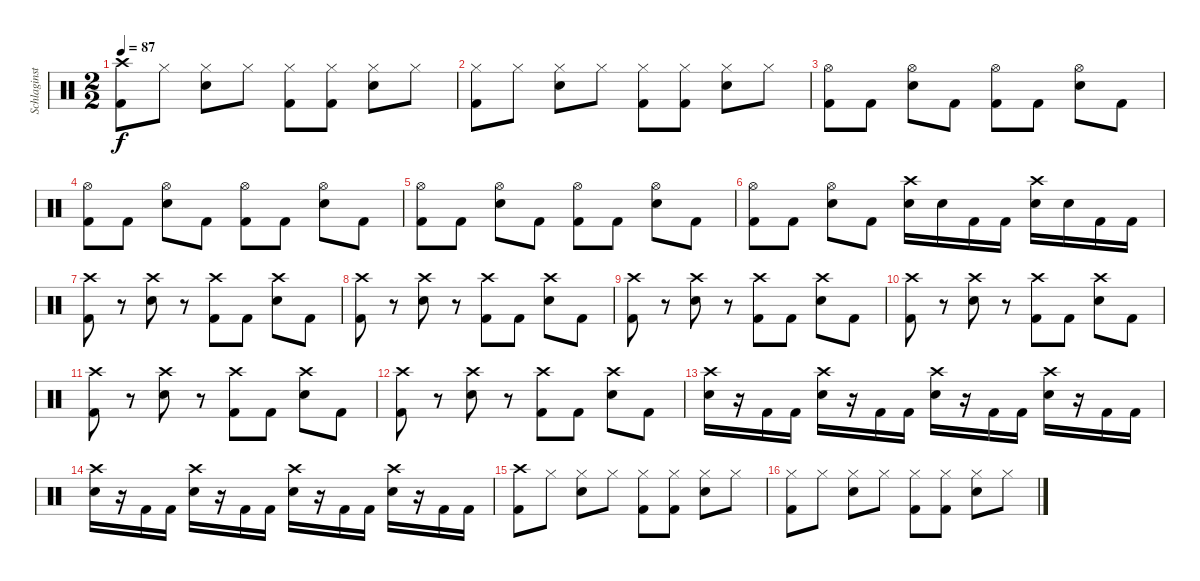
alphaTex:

\track ("Schlaginstrumente - Auswahl" "Schlaginst") {instrument percussion}
\staff {score}
\articulation defaults
\ts (2 2)
\tempo 87
\clef neutral
\ks c
("Crash high (hit)" "Kick (hit) 2").8{dy f} "Hi-Hat (closed)".8 ("Hi-Hat (closed)" "Electric Snare (hit)").8 "Hi-Hat (closed)".8 ("Hi-Hat (closed)" "Kick (hit) 2").8 ("Hi-Hat (closed)" "Kick (hit) 2").8 ("Hi-Hat (closed)" "Electric Snare (hit)").8 "Hi-Hat (closed)".8 |
("Hi-Hat (closed)" "Kick (hit) 2").8 "Hi-Hat (closed)".8 ("Hi-Hat (closed)" "Electric Snare (hit)").8 "Hi-Hat (closed)".8 ("Hi-Hat (closed)" "Kick (hit) 2").8 ("Hi-Hat (closed)" "Kick (hit) 2").8 ("Hi-Hat (closed)" "Electric Snare (hit)").8 "Hi-Hat (closed)".8 |
("Hi-Hat (open)" "Kick (hit) 2").8 "Kick (hit) 2".8 ("Hi-Hat (open)" "Electric Snare (hit)").8 "Kick (hit) 2".8 ("Hi-Hat (open)" "Kick (hit) 2").8 "Kick (hit) 2".8 ("Hi-Hat (open)" "Electric Snare (hit)").8 "Kick (hit) 2".8 |
("Hi-Hat (open)" "Kick (hit) 2").8 "Kick (hit) 2".8 ("Hi-Hat (open)" "Electric Snare (hit)").8 "Kick (hit) 2".8 ("Hi-Hat (open)" "Kick (hit) 2").8 "Kick (hit) 2".8 ("Hi-Hat (open)" "Electric Snare (hit)").8 "Kick (hit) 2".8 |
("Hi-Hat (open)" "Kick (hit) 2").8 "Kick (hit) 2".8 ("Hi-Hat (open)" "Electric Snare (hit)").8 "Kick (hit) 2".8 ("Hi-Hat (open)" "Kick (hit) 2").8 "Kick (hit) 2".8 ("Hi-Hat (open)" "Electric Snare (hit)").8 "Kick (hit) 2".8 |
("Hi-Hat (open)" "Kick (hit) 2").8 "Kick (hit) 2".8 ("Hi-Hat (open)" "Electric Snare (hit)").8 "Kick (hit) 2".8 ("Crash high (hit)" "Electric Snare (hit)").16 "Electric Snare (hit)".16 "Kick (hit) 2".16 "Kick (hit) 2".16 ("Crash high (hit)" "Electric Snare (hit)").16 "Electric Snare (hit)".16 "Kick (hit) 2".16 "Kick (hit) 2".16 |
("Crash high (hit)" "Kick (hit) 2").8 r.8 ("Crash high (hit)" "Electric Snare (hit)").8 r.8 ("Crash high (hit)" "Kick (hit) 2").8 "Kick (hit) 2".8 ("Crash high (hit)" "Electric Snare (hit)").8 "Kick (hit) 2".8 |
("Crash high (hit)" "Kick (hit) 2").8 r.8 ("Crash high (hit)" "Electric Snare (hit)").8 r.8 ("Crash high (hit)" "Kick (hit) 2").8 "Kick (hit) 2".8 ("Crash high (hit)" "Electric Snare (hit)").8 "Kick (hit) 2".8 |
("Crash high (hit)" "Kick (hit) 2").8 r.8 ("Crash high (hit)" "Electric Snare (hit)").8 r.8 ("Crash high (hit)" "Kick (hit) 2").8 "Kick (hit) 2".8 ("Crash high (hit)" "Electric Snare (hit)").8 "Kick (hit) 2".8 |
("Crash high (hit)" "Kick (hit) 2").8 r.8 ("Crash high (hit)" "Electric Snare (hit)").8 r.8 ("Crash high (hit)" "Kick (hit) 2").8 "Kick (hit) 2".8 ("Crash high (hit)" "Electric Snare (hit)").8 "Kick (hit) 2".8 |
("Crash high (hit)" "Kick (hit) 2").8 r.8 ("Crash high (hit)" "Electric Snare (hit)").8 r.8 ("Crash high (hit)" "Kick (hit) 2").8 "Kick (hit) 2".8 ("Crash high (hit)" "Electric Snare (hit)").8 "Kick (hit) 2".8 |
("Crash high (hit)" "Kick (hit) 2").8 r.8 ("Crash high (hit)" "Electric Snare (hit)").8 r.8 ("Crash high (hit)" "Kick (hit) 2").8 "Kick (hit) 2".8 ("Crash high (hit)" "Electric Snare (hit)").8 "Kick (hit) 2".8 |
("Crash high (hit)" "Electric Snare (hit)").16 r.16 "Kick (hit) 2".16 "Kick (hit) 2".16 ("Crash high (hit)" "Electric Snare (hit)").16 r.16 "Kick (hit) 2".16 "Kick (hit) 2".16 ("Crash high (hit)" "Electric Snare (hit)").16 r.16 "Kick (hit) 2".16 "Kick (hit) 2".16 ("Crash high (hit)" "Electric Snare (hit)").16 r.16 "Kick (hit) 2".16 "Kick (hit) 2".16 |
("Crash high (hit)" "Electric Snare (hit)").16 r.16 "Kick (hit) 2".16 "Kick (hit) 2".16 ("Crash high (hit)" "Electric Snare (hit)").16 r.16 "Kick (hit) 2".16 "Kick (hit) 2".16 ("Crash high (hit)" "Electric Snare (hit)").16 r.16 "Kick (hit) 2".16 "Kick (hit) 2".16 ("Crash high (hit)" "Electric Snare (hit)").16 r.16 "Kick (hit) 2".16 "Kick (hit) 2".16 |
("Crash high (hit)" "Kick (hit) 2").8 "Hi-Hat (closed)".8 ("Hi-Hat (closed)" "Electric Snare (hit)").8 "Hi-Hat (closed)".8 ("Hi-Hat (closed)" "Kick (hit) 2").8 ("Hi-Hat (closed)" "Kick (hit) 2").8 ("Hi-Hat (closed)" "Electric Snare (hit)").8 "Hi-Hat (closed)".8 |
("Hi-Hat (closed)" "Kick (hit) 2").8 "Hi-Hat (closed)".8 ("Hi-Hat (closed)" "Electric Snare (hit)").8 "Hi-Hat (closed)".8 ("Hi-Hat (closed)" "Kick (hit) 2").8 ("Hi-Hat (closed)" "Kick (hit) 2").8 ("Hi-Hat (closed)" "Electric Snare (hit)").8 "Hi-Hat (closed)".8
